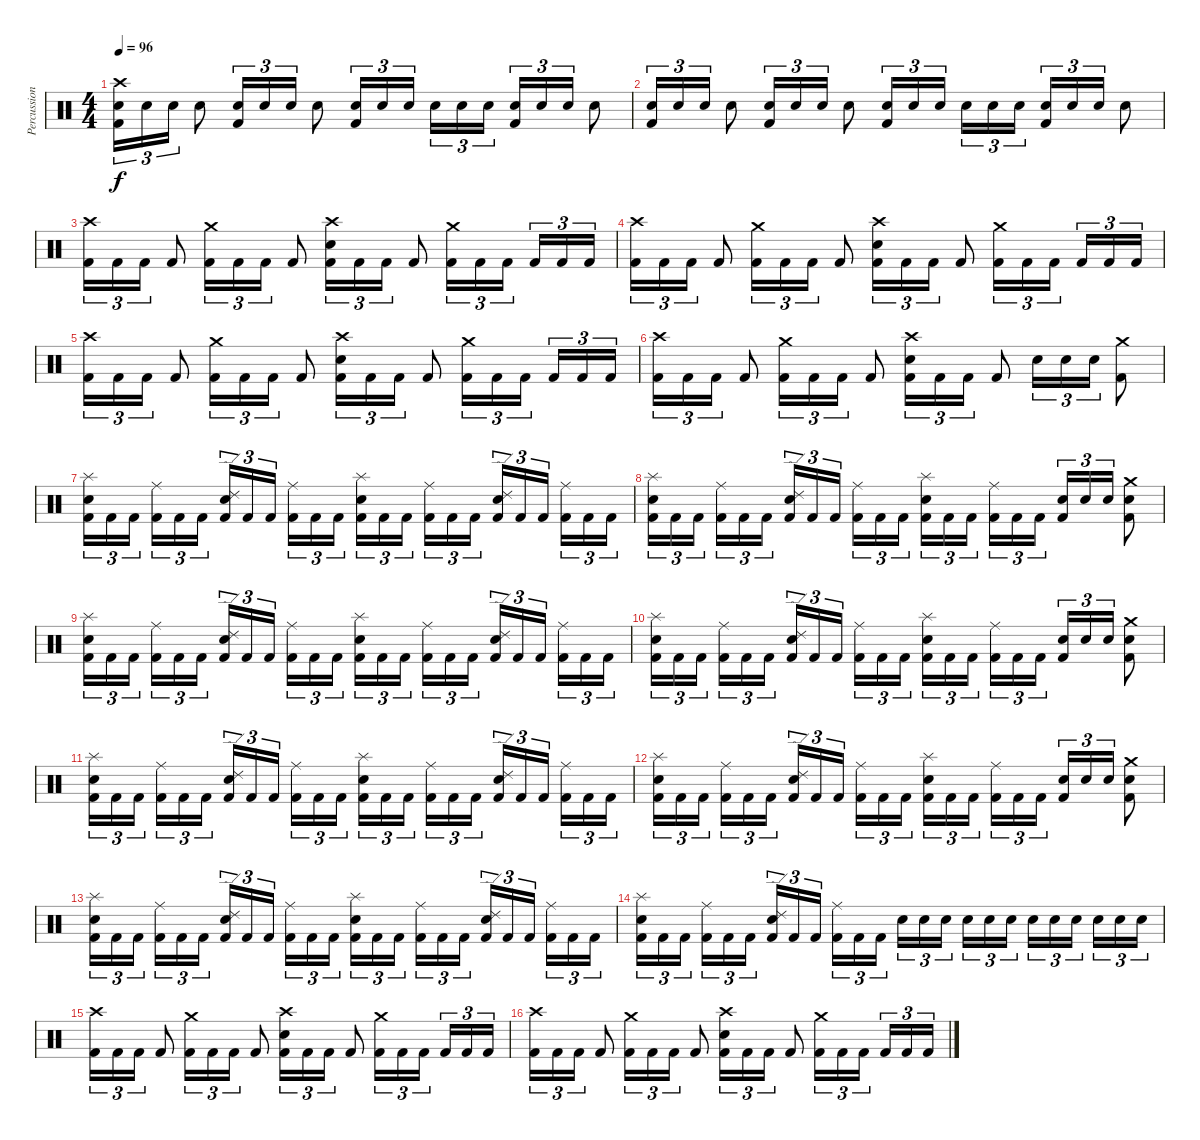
\track ("Percussion" "Percussion") {instrument percussion}
\staff {score}
\articulation defaults
\ts (4 4)
\tempo 96
\clef neutral
\ks c
("Crash high (hit)" "Snare (hit) 2" "Kick (hit) 2").16{tu (3 2) dy f} "Snare (hit) 2".16{tu (3 2)} "Snare (hit) 2".16{tu (3 2)} "Snare (hit) 2".8 ("Snare (hit) 2" "Kick (hit) 2").16{tu (3 2)} "Snare (hit) 2".16{tu (3 2)} "Snare (hit) 2".16{tu (3 2)} "Snare (hit) 2".8 ("Snare (hit) 2" "Kick (hit) 2").16{tu (3 2)} "Snare (hit) 2".16{tu (3 2)} "Snare (hit) 2".16{tu (3 2) beam splitsecondary} "Snare (hit) 2".16{tu (3 2)} "Snare (hit) 2".16{tu (3 2)} "Snare (hit) 2".16{tu (3 2)} ("Snare (hit) 2" "Kick (hit) 2").16{tu (3 2)} "Snare (hit) 2".16{tu (3 2)} "Snare (hit) 2".16{tu (3 2)} "Snare (hit) 2".8 |
("Snare (hit) 2" "Kick (hit) 2").16{tu (3 2)} "Snare (hit) 2".16{tu (3 2)} "Snare (hit) 2".16{tu (3 2)} "Snare (hit) 2".8 ("Snare (hit) 2" "Kick (hit) 2").16{tu (3 2)} "Snare (hit) 2".16{tu (3 2)} "Snare (hit) 2".16{tu (3 2)} "Snare (hit) 2".8 ("Snare (hit) 2" "Kick (hit) 2").16{tu (3 2)} "Snare (hit) 2".16{tu (3 2)} "Snare (hit) 2".16{tu (3 2) beam splitsecondary} "Snare (hit) 2".16{tu (3 2)} "Snare (hit) 2".16{tu (3 2)} "Snare (hit) 2".16{tu (3 2)} ("Snare (hit) 2" "Kick (hit) 2").16{tu (3 2)} "Snare (hit) 2".16{tu (3 2)} "Snare (hit) 2".16{tu (3 2)} "Snare (hit) 2".8 |
("Crash high (hit)" "Kick (hit) 2").16{tu (3 2)} "Kick (hit) 2".16{tu (3 2)} "Kick (hit) 2".16{tu (3 2)} "Kick (hit) 2".8 ("Crash medium (hit)" "Kick (hit) 2").16{tu (3 2)} "Kick (hit) 2".16{tu (3 2)} "Kick (hit) 2".16{tu (3 2)} "Kick (hit) 2".8 ("Crash high (hit)" "Snare (hit) 2" "Kick (hit) 2").16{tu (3 2)} "Kick (hit) 2".16{tu (3 2)} "Kick (hit) 2".16{tu (3 2)} "Kick (hit) 2".8 ("Crash medium (hit)" "Kick (hit) 2").16{tu (3 2)} "Kick (hit) 2".16{tu (3 2)} "Kick (hit) 2".16{tu (3 2) beam splitsecondary} "Kick (hit) 2".16{tu (3 2)} "Kick (hit) 2".16{tu (3 2)} "Kick (hit) 2".16{tu (3 2)} |
("Crash high (hit)" "Kick (hit) 2").16{tu (3 2)} "Kick (hit) 2".16{tu (3 2)} "Kick (hit) 2".16{tu (3 2)} "Kick (hit) 2".8 ("Crash medium (hit)" "Kick (hit) 2").16{tu (3 2)} "Kick (hit) 2".16{tu (3 2)} "Kick (hit) 2".16{tu (3 2)} "Kick (hit) 2".8 ("Crash high (hit)" "Snare (hit) 2" "Kick (hit) 2").16{tu (3 2)} "Kick (hit) 2".16{tu (3 2)} "Kick (hit) 2".16{tu (3 2)} "Kick (hit) 2".8 ("Crash medium (hit)" "Kick (hit) 2").16{tu (3 2)} "Kick (hit) 2".16{tu (3 2)} "Kick (hit) 2".16{tu (3 2) beam splitsecondary} "Kick (hit) 2".16{tu (3 2)} "Kick (hit) 2".16{tu (3 2)} "Kick (hit) 2".16{tu (3 2)} |
("Crash high (hit)" "Kick (hit) 2").16{tu (3 2)} "Kick (hit) 2".16{tu (3 2)} "Kick (hit) 2".16{tu (3 2)} "Kick (hit) 2".8 ("Crash medium (hit)" "Kick (hit) 2").16{tu (3 2)} "Kick (hit) 2".16{tu (3 2)} "Kick (hit) 2".16{tu (3 2)} "Kick (hit) 2".8 ("Crash high (hit)" "Snare (hit) 2" "Kick (hit) 2").16{tu (3 2)} "Kick (hit) 2".16{tu (3 2)} "Kick (hit) 2".16{tu (3 2)} "Kick (hit) 2".8 ("Crash medium (hit)" "Kick (hit) 2").16{tu (3 2)} "Kick (hit) 2".16{tu (3 2)} "Kick (hit) 2".16{tu (3 2) beam splitsecondary} "Kick (hit) 2".16{tu (3 2)} "Kick (hit) 2".16{tu (3 2)} "Kick (hit) 2".16{tu (3 2)} |
("Crash high (hit)" "Kick (hit) 2").16{tu (3 2)} "Kick (hit) 2".16{tu (3 2)} "Kick (hit) 2".16{tu (3 2)} "Kick (hit) 2".8 ("Crash medium (hit)" "Kick (hit) 2").16{tu (3 2)} "Kick (hit) 2".16{tu (3 2)} "Kick (hit) 2".16{tu (3 2)} "Kick (hit) 2".8 ("Crash high (hit)" "Snare (hit) 2" "Kick (hit) 2").16{tu (3 2)} "Kick (hit) 2".16{tu (3 2)} "Kick (hit) 2".16{tu (3 2)} "Kick (hit) 2".8 "Snare (hit) 2".16{tu (3 2)} "Snare (hit) 2".16{tu (3 2)} "Snare (hit) 2".16{tu (3 2)} ("Crash medium (hit)" "Kick (hit) 2").8 |
("Splash (hit)" "Snare (hit) 2" "Kick (hit) 2").16{tu (3 2)} "Kick (hit) 2".16{tu (3 2)} "Kick (hit) 2".16{tu (3 2) beam splitsecondary} ("Ride (middle)" "Kick (hit) 2").16{tu (3 2)} "Kick (hit) 2".16{tu (3 2)} "Kick (hit) 2".16{tu (3 2)} ("Ride (edge) 2" "Snare (hit) 2" "Kick (hit) 2").16{tu (3 2)} "Kick (hit) 2".16{tu (3 2)} "Kick (hit) 2".16{tu (3 2) beam splitsecondary} ("Ride (middle)" "Kick (hit) 2").16{tu (3 2)} "Kick (hit) 2".16{tu (3 2)} "Kick (hit) 2".16{tu (3 2)} ("Splash (hit)" "Snare (hit) 2" "Kick (hit) 2").16{tu (3 2)} "Kick (hit) 2".16{tu (3 2)} "Kick (hit) 2".16{tu (3 2) beam splitsecondary} ("Ride (middle)" "Kick (hit) 2").16{tu (3 2)} "Kick (hit) 2".16{tu (3 2)} "Kick (hit) 2".16{tu (3 2)} ("Ride (edge) 2" "Snare (hit) 2" "Kick (hit) 2").16{tu (3 2)} "Kick (hit) 2".16{tu (3 2)} "Kick (hit) 2".16{tu (3 2) beam splitsecondary} ("Ride (middle)" "Kick (hit) 2").16{tu (3 2)} "Kick (hit) 2".16{tu (3 2)} "Kick (hit) 2".16{tu (3 2)} |
("Splash (hit)" "Snare (hit) 2" "Kick (hit) 2").16{tu (3 2)} "Kick (hit) 2".16{tu (3 2)} "Kick (hit) 2".16{tu (3 2) beam splitsecondary} ("Ride (middle)" "Kick (hit) 2").16{tu (3 2)} "Kick (hit) 2".16{tu (3 2)} "Kick (hit) 2".16{tu (3 2)} ("Ride (edge) 2" "Snare (hit) 2" "Kick (hit) 2").16{tu (3 2)} "Kick (hit) 2".16{tu (3 2)} "Kick (hit) 2".16{tu (3 2) beam splitsecondary} ("Ride (middle)" "Kick (hit) 2").16{tu (3 2)} "Kick (hit) 2".16{tu (3 2)} "Kick (hit) 2".16{tu (3 2)} ("Splash (hit)" "Snare (hit) 2" "Kick (hit) 2").16{tu (3 2)} "Kick (hit) 2".16{tu (3 2)} "Kick (hit) 2".16{tu (3 2) beam splitsecondary} ("Ride (middle)" "Kick (hit) 2").16{tu (3 2)} "Kick (hit) 2".16{tu (3 2)} "Kick (hit) 2".16{tu (3 2)} ("Snare (hit) 2" "Kick (hit) 2").16{tu (3 2)} "Snare (hit) 2".16{tu (3 2)} "Snare (hit) 2".16{tu (3 2)} ("Crash medium (hit)" "Snare (hit) 2" "Kick (hit) 2").8 |
("Splash (hit)" "Snare (hit) 2" "Kick (hit) 2").16{tu (3 2)} "Kick (hit) 2".16{tu (3 2)} "Kick (hit) 2".16{tu (3 2) beam splitsecondary} ("Ride (middle)" "Kick (hit) 2").16{tu (3 2)} "Kick (hit) 2".16{tu (3 2)} "Kick (hit) 2".16{tu (3 2)} ("Ride (edge) 2" "Snare (hit) 2" "Kick (hit) 2").16{tu (3 2)} "Kick (hit) 2".16{tu (3 2)} "Kick (hit) 2".16{tu (3 2) beam splitsecondary} ("Ride (middle)" "Kick (hit) 2").16{tu (3 2)} "Kick (hit) 2".16{tu (3 2)} "Kick (hit) 2".16{tu (3 2)} ("Splash (hit)" "Snare (hit) 2" "Kick (hit) 2").16{tu (3 2)} "Kick (hit) 2".16{tu (3 2)} "Kick (hit) 2".16{tu (3 2) beam splitsecondary} ("Ride (middle)" "Kick (hit) 2").16{tu (3 2)} "Kick (hit) 2".16{tu (3 2)} "Kick (hit) 2".16{tu (3 2)} ("Ride (edge) 2" "Snare (hit) 2" "Kick (hit) 2").16{tu (3 2)} "Kick (hit) 2".16{tu (3 2)} "Kick (hit) 2".16{tu (3 2) beam splitsecondary} ("Ride (middle)" "Kick (hit) 2").16{tu (3 2)} "Kick (hit) 2".16{tu (3 2)} "Kick (hit) 2".16{tu (3 2)} |
("Splash (hit)" "Snare (hit) 2" "Kick (hit) 2").16{tu (3 2)} "Kick (hit) 2".16{tu (3 2)} "Kick (hit) 2".16{tu (3 2) beam splitsecondary} ("Ride (middle)" "Kick (hit) 2").16{tu (3 2)} "Kick (hit) 2".16{tu (3 2)} "Kick (hit) 2".16{tu (3 2)} ("Ride (edge) 2" "Snare (hit) 2" "Kick (hit) 2").16{tu (3 2)} "Kick (hit) 2".16{tu (3 2)} "Kick (hit) 2".16{tu (3 2) beam splitsecondary} ("Ride (middle)" "Kick (hit) 2").16{tu (3 2)} "Kick (hit) 2".16{tu (3 2)} "Kick (hit) 2".16{tu (3 2)} ("Splash (hit)" "Snare (hit) 2" "Kick (hit) 2").16{tu (3 2)} "Kick (hit) 2".16{tu (3 2)} "Kick (hit) 2".16{tu (3 2) beam splitsecondary} ("Ride (middle)" "Kick (hit) 2").16{tu (3 2)} "Kick (hit) 2".16{tu (3 2)} "Kick (hit) 2".16{tu (3 2)} ("Snare (hit) 2" "Kick (hit) 2").16{tu (3 2)} "Snare (hit) 2".16{tu (3 2)} "Snare (hit) 2".16{tu (3 2)} ("Crash medium (hit)" "Snare (hit) 2" "Kick (hit) 2").8 |
("Splash (hit)" "Snare (hit) 2" "Kick (hit) 2").16{tu (3 2)} "Kick (hit) 2".16{tu (3 2)} "Kick (hit) 2".16{tu (3 2) beam splitsecondary} ("Ride (middle)" "Kick (hit) 2").16{tu (3 2)} "Kick (hit) 2".16{tu (3 2)} "Kick (hit) 2".16{tu (3 2)} ("Ride (edge) 2" "Snare (hit) 2" "Kick (hit) 2").16{tu (3 2)} "Kick (hit) 2".16{tu (3 2)} "Kick (hit) 2".16{tu (3 2) beam splitsecondary} ("Ride (middle)" "Kick (hit) 2").16{tu (3 2)} "Kick (hit) 2".16{tu (3 2)} "Kick (hit) 2".16{tu (3 2)} ("Splash (hit)" "Snare (hit) 2" "Kick (hit) 2").16{tu (3 2)} "Kick (hit) 2".16{tu (3 2)} "Kick (hit) 2".16{tu (3 2) beam splitsecondary} ("Ride (middle)" "Kick (hit) 2").16{tu (3 2)} "Kick (hit) 2".16{tu (3 2)} "Kick (hit) 2".16{tu (3 2)} ("Ride (edge) 2" "Snare (hit) 2" "Kick (hit) 2").16{tu (3 2)} "Kick (hit) 2".16{tu (3 2)} "Kick (hit) 2".16{tu (3 2) beam splitsecondary} ("Ride (middle)" "Kick (hit) 2").16{tu (3 2)} "Kick (hit) 2".16{tu (3 2)} "Kick (hit) 2".16{tu (3 2)} |
("Splash (hit)" "Snare (hit) 2" "Kick (hit) 2").16{tu (3 2)} "Kick (hit) 2".16{tu (3 2)} "Kick (hit) 2".16{tu (3 2) beam splitsecondary} ("Ride (middle)" "Kick (hit) 2").16{tu (3 2)} "Kick (hit) 2".16{tu (3 2)} "Kick (hit) 2".16{tu (3 2)} ("Ride (edge) 2" "Snare (hit) 2" "Kick (hit) 2").16{tu (3 2)} "Kick (hit) 2".16{tu (3 2)} "Kick (hit) 2".16{tu (3 2) beam splitsecondary} ("Ride (middle)" "Kick (hit) 2").16{tu (3 2)} "Kick (hit) 2".16{tu (3 2)} "Kick (hit) 2".16{tu (3 2)} ("Splash (hit)" "Snare (hit) 2" "Kick (hit) 2").16{tu (3 2)} "Kick (hit) 2".16{tu (3 2)} "Kick (hit) 2".16{tu (3 2) beam splitsecondary} ("Ride (middle)" "Kick (hit) 2").16{tu (3 2)} "Kick (hit) 2".16{tu (3 2)} "Kick (hit) 2".16{tu (3 2)} ("Snare (hit) 2" "Kick (hit) 2").16{tu (3 2)} "Snare (hit) 2".16{tu (3 2)} "Snare (hit) 2".16{tu (3 2)} ("Crash medium (hit)" "Snare (hit) 2" "Kick (hit) 2").8 |
("Splash (hit)" "Snare (hit) 2" "Kick (hit) 2").16{tu (3 2)} "Kick (hit) 2".16{tu (3 2)} "Kick (hit) 2".16{tu (3 2) beam splitsecondary} ("Ride (middle)" "Kick (hit) 2").16{tu (3 2)} "Kick (hit) 2".16{tu (3 2)} "Kick (hit) 2".16{tu (3 2)} ("Ride (edge) 2" "Snare (hit) 2" "Kick (hit) 2").16{tu (3 2)} "Kick (hit) 2".16{tu (3 2)} "Kick (hit) 2".16{tu (3 2) beam splitsecondary} ("Ride (middle)" "Kick (hit) 2").16{tu (3 2)} "Kick (hit) 2".16{tu (3 2)} "Kick (hit) 2".16{tu (3 2)} ("Splash (hit)" "Snare (hit) 2" "Kick (hit) 2").16{tu (3 2)} "Kick (hit) 2".16{tu (3 2)} "Kick (hit) 2".16{tu (3 2) beam splitsecondary} ("Ride (middle)" "Kick (hit) 2").16{tu (3 2)} "Kick (hit) 2".16{tu (3 2)} "Kick (hit) 2".16{tu (3 2)} ("Ride (edge) 2" "Snare (hit) 2" "Kick (hit) 2").16{tu (3 2)} "Kick (hit) 2".16{tu (3 2)} "Kick (hit) 2".16{tu (3 2) beam splitsecondary} ("Ride (middle)" "Kick (hit) 2").16{tu (3 2)} "Kick (hit) 2".16{tu (3 2)} "Kick (hit) 2".16{tu (3 2)} |
("Splash (hit)" "Snare (hit) 2" "Kick (hit) 2").16{tu (3 2)} "Kick (hit) 2".16{tu (3 2)} "Kick (hit) 2".16{tu (3 2) beam splitsecondary} ("Ride (middle)" "Kick (hit) 2").16{tu (3 2)} "Kick (hit) 2".16{tu (3 2)} "Kick (hit) 2".16{tu (3 2)} ("Ride (edge) 2" "Snare (hit) 2" "Kick (hit) 2").16{tu (3 2)} "Kick (hit) 2".16{tu (3 2)} "Kick (hit) 2".16{tu (3 2) beam splitsecondary} ("Ride (middle)" "Kick (hit) 2").16{tu (3 2)} "Kick (hit) 2".16{tu (3 2)} "Kick (hit) 2".16{tu (3 2)} "Snare (hit) 2".16{tu (3 2)} "Snare (hit) 2".16{tu (3 2)} "Snare (hit) 2".16{tu (3 2) beam splitsecondary} "Snare (hit) 2".16{tu (3 2)} "Snare (hit) 2".16{tu (3 2)} "Snare (hit) 2".16{tu (3 2)} "Snare (hit) 2".16{tu (3 2)} "Snare (hit) 2".16{tu (3 2)} "Snare (hit) 2".16{tu (3 2) beam splitsecondary} "Snare (hit) 2".16{tu (3 2)} "Snare (hit) 2".16{tu (3 2)} "Snare (hit) 2".16{tu (3 2)} |
("Crash high (hit)" "Kick (hit) 2").16{tu (3 2)} "Kick (hit) 2".16{tu (3 2)} "Kick (hit) 2".16{tu (3 2)} "Kick (hit) 2".8 ("Crash medium (hit)" "Kick (hit) 2").16{tu (3 2)} "Kick (hit) 2".16{tu (3 2)} "Kick (hit) 2".16{tu (3 2)} "Kick (hit) 2".8 ("Crash high (hit)" "Snare (hit) 2" "Kick (hit) 2").16{tu (3 2)} "Kick (hit) 2".16{tu (3 2)} "Kick (hit) 2".16{tu (3 2)} "Kick (hit) 2".8 ("Crash medium (hit)" "Kick (hit) 2").16{tu (3 2)} "Kick (hit) 2".16{tu (3 2)} "Kick (hit) 2".16{tu (3 2) beam splitsecondary} "Kick (hit) 2".16{tu (3 2)} "Kick (hit) 2".16{tu (3 2)} "Kick (hit) 2".16{tu (3 2)} |
("Crash high (hit)" "Kick (hit) 2").16{tu (3 2)} "Kick (hit) 2".16{tu (3 2)} "Kick (hit) 2".16{tu (3 2)} "Kick (hit) 2".8 ("Crash medium (hit)" "Kick (hit) 2").16{tu (3 2)} "Kick (hit) 2".16{tu (3 2)} "Kick (hit) 2".16{tu (3 2)} "Kick (hit) 2".8 ("Crash high (hit)" "Snare (hit) 2" "Kick (hit) 2").16{tu (3 2)} "Kick (hit) 2".16{tu (3 2)} "Kick (hit) 2".16{tu (3 2)} "Kick (hit) 2".8 ("Crash medium (hit)" "Kick (hit) 2").16{tu (3 2)} "Kick (hit) 2".16{tu (3 2)} "Kick (hit) 2".16{tu (3 2) beam splitsecondary} "Kick (hit) 2".16{tu (3 2)} "Kick (hit) 2".16{tu (3 2)} "Kick (hit) 2".16{tu (3 2)}
